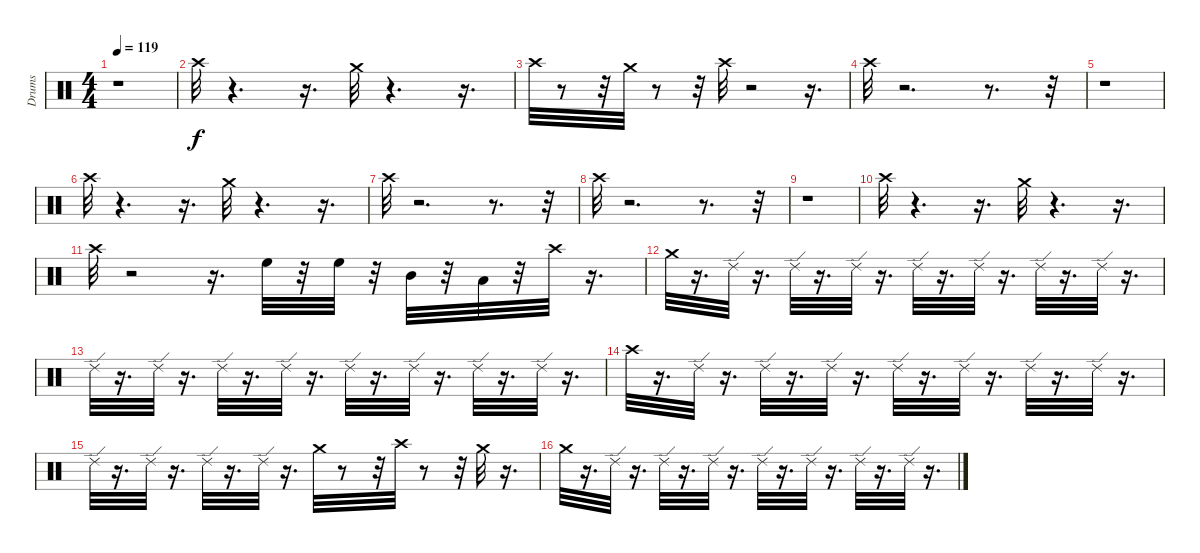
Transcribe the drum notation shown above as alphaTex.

\track ("Drums" "Drums") {instrument percussion}
\staff {score}
\articulation defaults
\ts (4 4)
\tempo 119
\clef neutral
\ks c
r.1{dy f} |
"Crash high (hit)".32 r.4{d} r.16{d} "Crash medium (hit)".32 r.4{d} r.16{d} |
"Crash high (hit)".32 r.8 r.32 "Crash medium (hit)".32 r.8 r.32 "Crash high (hit)".32 r.2 r.16{d} |
"Crash high (hit)".32 r.2{d} r.8{d} r.32 |
r.1 |
"Crash high (hit)".32 r.4{d} r.16{d} "Crash medium (hit)".32 r.4{d} r.16{d} |
"Crash high (hit)".32 r.2{d} r.8{d} r.32 |
"Crash high (hit)".32 r.2{d} r.8{d} r.32 |
r.1 |
"Crash high (hit)".32 r.4{d} r.16{d} "Crash medium (hit)".32 r.4{d} r.16{d} |
"Crash high (hit)".32 r.2 r.16{d} "High Floor Tom (hit)".32 r.32 "High Floor Tom (hit)".32 r.32 "Mid Tom (hit)".32 r.32 "Low Tom (hit)".32 r.32 "Crash high (hit)".32 r.16{d} |
"Crash medium (hit)".32 r.16{d} "Ride (edge) 2".32 r.16{d} "Ride (edge) 2".32 r.16{d} "Ride (edge) 2".32 r.16{d} "Ride (edge) 2".32 r.16{d} "Ride (edge) 2".32 r.16{d} "Ride (edge) 2".32 r.16{d} "Ride (edge) 2".32 r.16{d} |
"Ride (edge) 2".32 r.16{d} "Ride (edge) 2".32 r.16{d} "Ride (edge) 2".32 r.16{d} "Ride (edge) 2".32 r.16{d} "Ride (edge) 2".32 r.16{d} "Ride (edge) 2".32 r.16{d} "Ride (edge) 2".32 r.16{d} "Ride (edge) 2".32 r.16{d} |
"Crash high (hit)".32 r.16{d} "Ride (edge) 2".32 r.16{d} "Ride (edge) 2".32 r.16{d} "Ride (edge) 2".32 r.16{d} "Ride (edge) 2".32 r.16{d} "Ride (edge) 2".32 r.16{d} "Ride (edge) 2".32 r.16{d} "Ride (edge) 2".32 r.16{d} |
"Ride (edge) 2".32 r.16{d} "Ride (edge) 2".32 r.16{d} "Ride (edge) 2".32 r.16{d} "Ride (edge) 2".32 r.16{d} "Crash medium (hit)".32 r.8 r.32 "Crash high (hit)".32 r.8 r.32 "Crash medium (hit)".32 r.16{d} |
"Crash medium (hit)".32 r.16{d} "Ride (edge) 2".32 r.16{d} "Ride (edge) 2".32 r.16{d} "Ride (edge) 2".32 r.16{d} "Ride (edge) 2".32 r.16{d} "Ride (edge) 2".32 r.16{d} "Ride (edge) 2".32 r.16{d} "Ride (edge) 2".32 r.16{d}
